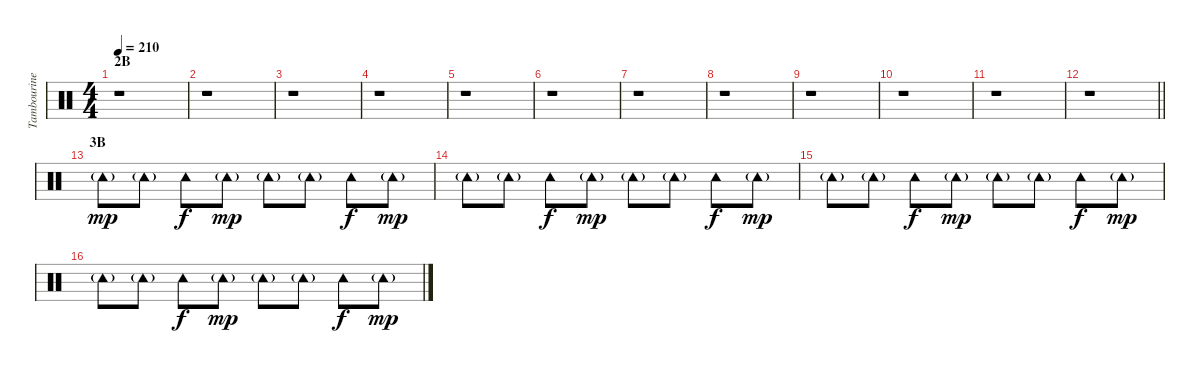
\track ("Tambourine" "Tambourine") {instrument percussion}
\staff {score}
\articulation defaults
\ts (4 4)
\section ("" "2B")
\tempo 210
\clef neutral
\ks c
r.1{dy f} |
r.1 |
r.1 |
r.1 |
r.1 |
r.1 |
r.1 |
r.1 |
r.1 |
r.1 |
r.1 |
\barLineRight lightlight
r.1 |
\section ("" "3B")
"Tambourine (hit)"{g}.8{dy mp} "Tambourine (hit)"{g}.8 "Tambourine (hit)".8{dy f} "Tambourine (hit)"{g}.8{dy mp} "Tambourine (hit)"{g}.8 "Tambourine (hit)"{g}.8 "Tambourine (hit)".8{dy f} "Tambourine (hit)"{g}.8{dy mp} |
"Tambourine (hit)"{g}.8 "Tambourine (hit)"{g}.8 "Tambourine (hit)".8{dy f} "Tambourine (hit)"{g}.8{dy mp} "Tambourine (hit)"{g}.8 "Tambourine (hit)"{g}.8 "Tambourine (hit)".8{dy f} "Tambourine (hit)"{g}.8{dy mp} |
"Tambourine (hit)"{g}.8 "Tambourine (hit)"{g}.8 "Tambourine (hit)".8{dy f} "Tambourine (hit)"{g}.8{dy mp} "Tambourine (hit)"{g}.8 "Tambourine (hit)"{g}.8 "Tambourine (hit)".8{dy f} "Tambourine (hit)"{g}.8{dy mp} |
"Tambourine (hit)"{g}.8 "Tambourine (hit)"{g}.8 "Tambourine (hit)".8{dy f} "Tambourine (hit)"{g}.8{dy mp} "Tambourine (hit)"{g}.8 "Tambourine (hit)"{g}.8 "Tambourine (hit)".8{dy f} "Tambourine (hit)"{g}.8{dy mp}
